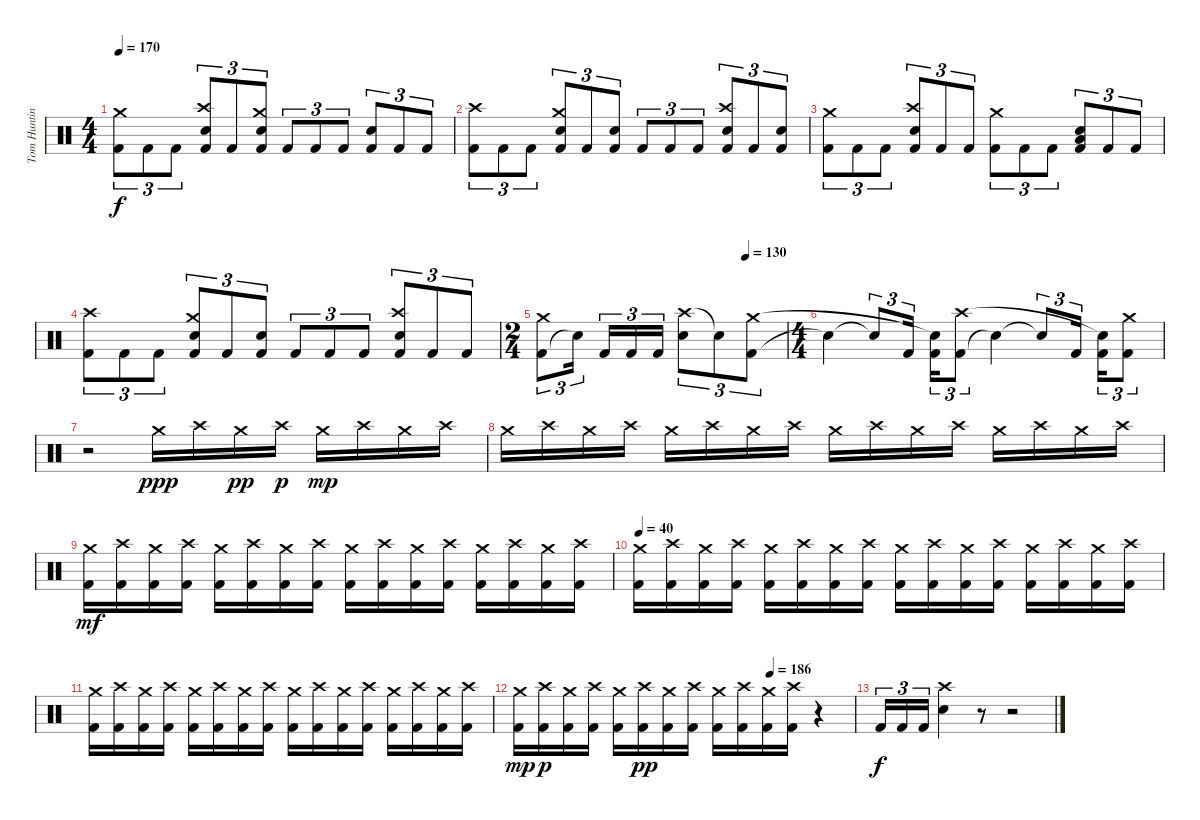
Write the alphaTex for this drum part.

\track ("Tom Hunting" "Tom Huntin") {instrument percussion}
\staff {score}
\articulation defaults
\ts (4 4)
\tempo 170
\clef neutral
\ks c
("Kick (hit) 2" "Crash medium (hit)").8{tu (3 2) dy f} "Kick (hit) 2".8{tu (3 2)} "Kick (hit) 2".8{tu (3 2)} ("Kick (hit) 2" "Crash high (hit)" "Snare (hit) 2").8{tu (3 2)} "Kick (hit) 2".8{tu (3 2)} ("Kick (hit) 2" "Crash medium (hit)" "Snare (hit) 2").8{tu (3 2)} "Kick (hit) 2".8{tu (3 2)} "Kick (hit) 2".8{tu (3 2)} "Kick (hit) 2".8{tu (3 2)} ("Kick (hit) 2" "Snare (hit) 2").8{tu (3 2)} "Kick (hit) 2".8{tu (3 2)} "Kick (hit) 2".8{tu (3 2)} |
("Kick (hit) 2" "Crash high (hit)").8{tu (3 2)} "Kick (hit) 2".8{tu (3 2)} "Kick (hit) 2".8{tu (3 2)} ("Kick (hit) 2" "Crash medium (hit)" "Snare (hit) 2").8{tu (3 2)} "Kick (hit) 2".8{tu (3 2)} ("Kick (hit) 2" "Snare (hit) 2").8{tu (3 2)} "Kick (hit) 2".8{tu (3 2)} "Kick (hit) 2".8{tu (3 2)} "Kick (hit) 2".8{tu (3 2)} ("Kick (hit) 2" "Crash high (hit)" "Snare (hit) 2").8{tu (3 2)} "Kick (hit) 2".8{tu (3 2)} ("Kick (hit) 2" "Snare (hit) 2").8{tu (3 2)} |
("Kick (hit) 2" "Crash medium (hit)").8{tu (3 2)} "Kick (hit) 2".8{tu (3 2)} "Kick (hit) 2".8{tu (3 2)} ("Kick (hit) 2" "Crash high (hit)" "Snare (hit) 2").8{tu (3 2)} "Kick (hit) 2".8{tu (3 2)} "Kick (hit) 2".8{tu (3 2)} ("Kick (hit) 2" "Crash medium (hit)").8{tu (3 2)} "Kick (hit) 2".8{tu (3 2)} "Kick (hit) 2".8{tu (3 2)} ("Kick (hit) 2" "Snare (hit) 2" "Low Tom (hit)").8{tu (3 2)} "Kick (hit) 2".8{tu (3 2)} "Kick (hit) 2".8{tu (3 2)} |
("Kick (hit) 2" "Crash high (hit)").8{tu (3 2)} "Kick (hit) 2".8{tu (3 2)} "Kick (hit) 2".8{tu (3 2)} ("Kick (hit) 2" "Crash medium (hit)" "Snare (hit) 2").8{tu (3 2)} "Kick (hit) 2".8{tu (3 2)} ("Kick (hit) 2" "Snare (hit) 2").8{tu (3 2)} "Kick (hit) 2".8{tu (3 2)} "Kick (hit) 2".8{tu (3 2)} "Kick (hit) 2".8{tu (3 2)} ("Kick (hit) 2" "Crash high (hit)" "Snare (hit) 2").8{tu (3 2)} "Kick (hit) 2".8{tu (3 2)} "Kick (hit) 2".8{tu (3 2)} |
\ts (2 4)
\tempo (130 0.8333333333333334)
("Kick (hit) 2" "Crash medium (hit)").8{tu (3 2)} "Snare (hit)"{t}.16{tu (3 2)} "Kick (hit) 2".16{tu (3 2)} "Kick (hit) 2".16{tu (3 2)} "Kick (hit) 2".16{tu (3 2)} ("Crash high (hit)" "Snare (hit) 2").8{tu (3 2)} "Snare (hit)"{t}.8{tu (3 2)} ("Kick (hit) 2" "Crash medium (hit)").8{tu (3 2)} |
\ts (4 4)
"Snare (hit)"{t}.4 "Snare (hit)"{t}.8{tu (3 2)} "Kick (hit) 2".16{tu (3 2)} ("Kick (hit) 2" "Snare (hit)"{t}).16{tu (3 2)} ("Kick (hit) 2" "Crash high (hit)").8{tu (3 2)} "Snare (hit)"{t}.4 "Snare (hit)"{t}.8{tu (3 2)} "Kick (hit) 2".16{tu (3 2)} ("Kick (hit) 2" "Snare (hit)"{t}).16{tu (3 2)} ("Kick (hit) 2" "Crash medium (hit)").8{tu (3 2)} |
r.2 "Crash medium (hit)".16{dy ppp} "Crash high (hit)".16 "Crash medium (hit)".16{dy pp} "Crash high (hit)".16{dy p} "Crash medium (hit)".16{dy mp} "Crash high (hit)".16 "Crash medium (hit)".16 "Crash high (hit)".16 |
"Crash medium (hit)".16 "Crash high (hit)".16 "Crash medium (hit)".16 "Crash high (hit)".16 "Crash medium (hit)".16 "Crash high (hit)".16 "Crash medium (hit)".16 "Crash high (hit)".16 "Crash medium (hit)".16 "Crash high (hit)".16 "Crash medium (hit)".16 "Crash high (hit)".16 "Crash medium (hit)".16 "Crash high (hit)".16 "Crash medium (hit)".16 "Crash high (hit)".16 |
("Kick (hit) 2" "Crash medium (hit)").16{dy mf} ("Kick (hit) 2" "Crash high (hit)").16 ("Kick (hit) 2" "Crash medium (hit)").16 ("Kick (hit) 2" "Crash high (hit)").16 ("Kick (hit) 2" "Crash medium (hit)").16 ("Kick (hit) 2" "Crash high (hit)").16 ("Kick (hit) 2" "Crash medium (hit)").16 ("Kick (hit) 2" "Crash high (hit)").16 ("Kick (hit) 2" "Crash medium (hit)").16 ("Kick (hit) 2" "Crash high (hit)").16 ("Kick (hit) 2" "Crash medium (hit)").16 ("Kick (hit) 2" "Crash high (hit)").16 ("Kick (hit) 2" "Crash medium (hit)").16 ("Kick (hit) 2" "Crash high (hit)").16 ("Kick (hit) 2" "Crash medium (hit)").16 ("Kick (hit) 2" "Crash high (hit)").16 |
\tempo 40
("Kick (hit) 2" "Crash medium (hit)").16 ("Kick (hit) 2" "Crash high (hit)").16 ("Kick (hit) 2" "Crash medium (hit)").16 ("Kick (hit) 2" "Crash high (hit)").16 ("Kick (hit) 2" "Crash medium (hit)").16 ("Kick (hit) 2" "Crash high (hit)").16 ("Kick (hit) 2" "Crash medium (hit)").16 ("Kick (hit) 2" "Crash high (hit)").16 ("Kick (hit) 2" "Crash medium (hit)").16 ("Kick (hit) 2" "Crash high (hit)").16 ("Kick (hit) 2" "Crash medium (hit)").16 ("Kick (hit) 2" "Crash high (hit)").16 ("Kick (hit) 2" "Crash medium (hit)").16 ("Kick (hit) 2" "Crash high (hit)").16 ("Kick (hit) 2" "Crash medium (hit)").16 ("Kick (hit) 2" "Crash high (hit)").16 |
("Kick (hit) 2" "Crash medium (hit)").16 ("Kick (hit) 2" "Crash high (hit)").16 ("Kick (hit) 2" "Crash medium (hit)").16 ("Kick (hit) 2" "Crash high (hit)").16 ("Kick (hit) 2" "Crash medium (hit)").16 ("Kick (hit) 2" "Crash high (hit)").16 ("Kick (hit) 2" "Crash medium (hit)").16 ("Kick (hit) 2" "Crash high (hit)").16 ("Kick (hit) 2" "Crash medium (hit)").16 ("Kick (hit) 2" "Crash high (hit)").16 ("Kick (hit) 2" "Crash medium (hit)").16 ("Kick (hit) 2" "Crash high (hit)").16 ("Kick (hit) 2" "Crash medium (hit)").16 ("Kick (hit) 2" "Crash high (hit)").16 ("Kick (hit) 2" "Crash medium (hit)").16 ("Kick (hit) 2" "Crash high (hit)").16 |
\tempo (186 0.75)
("Kick (hit) 2" "Crash medium (hit)").16{dy mp} ("Kick (hit) 2" "Crash high (hit)").16{dy p} ("Kick (hit) 2" "Crash medium (hit)").16 ("Kick (hit) 2" "Crash high (hit)").16 ("Kick (hit) 2" "Crash medium (hit)").16 ("Kick (hit) 2" "Crash high (hit)").16{dy pp} ("Kick (hit) 2" "Crash medium (hit)").16 ("Kick (hit) 2" "Crash high (hit)").16 ("Kick (hit) 2" "Crash medium (hit)").16 ("Kick (hit) 2" "Crash high (hit)").16 ("Kick (hit) 2" "Crash medium (hit)").16 ("Kick (hit) 2" "Crash high (hit)").16 r.4 |
"Kick (hit) 2".16{tu (3 2) dy f} "Kick (hit) 2".16{tu (3 2)} "Kick (hit) 2".16{tu (3 2)} ("Crash high (hit)" "Snare (hit) 2").4 r.8 r.2
